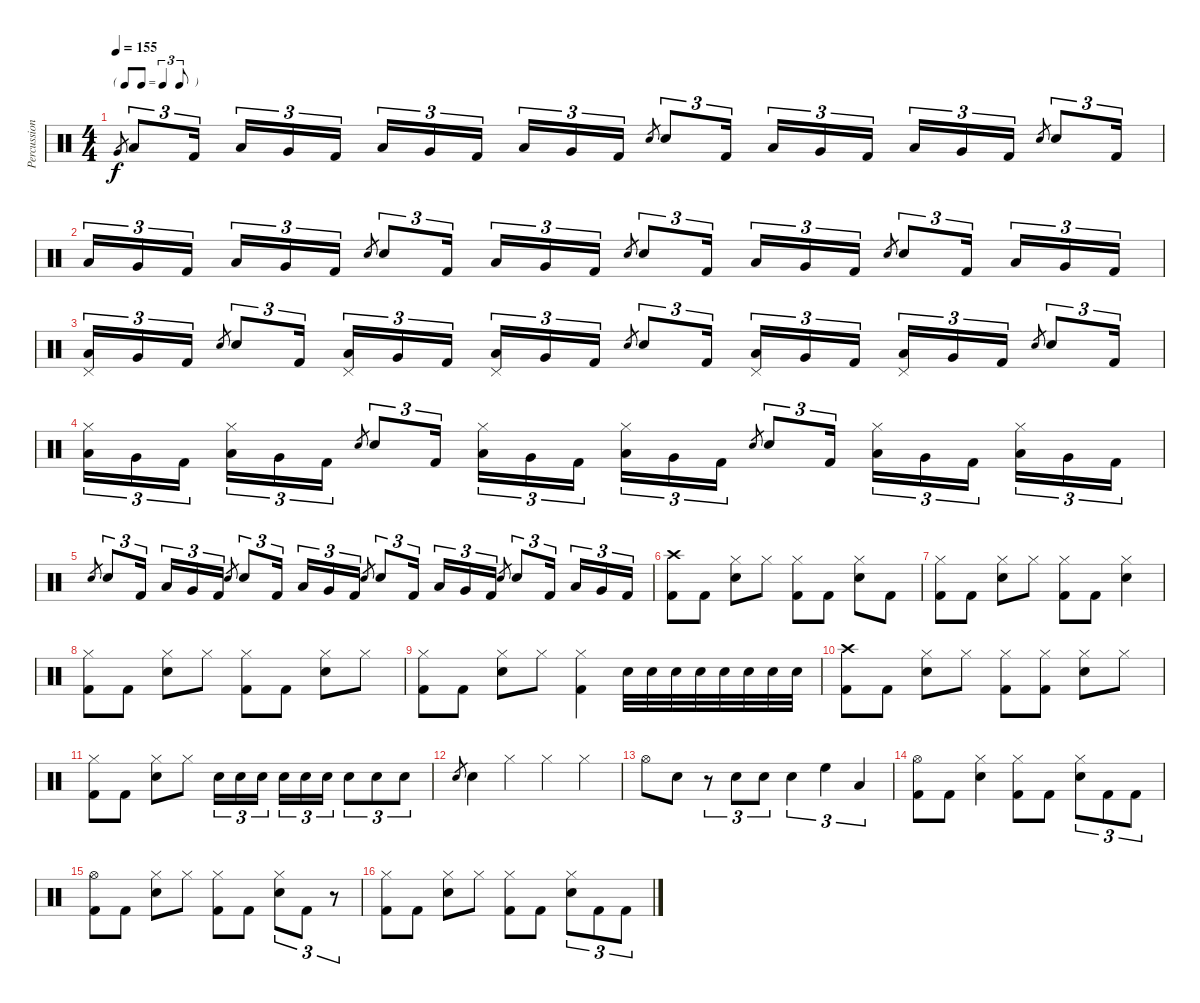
\track ("Percussion" "Percussion") {instrument percussion}
\staff {score}
\articulation defaults
\ts (4 4)
\tf triplet8th
\tempo 155
\clef neutral
\ks c "Very Low Tom (hit)".8{gr dy f} "Low Tom (hit)".8{tu (3 2)} "Kick (hit) 2".16{tu (3 2)} "Low Tom (hit)".16{tu (3 2)} "Very Low Tom (hit)".16{tu (3 2)} "Kick (hit) 2".16{tu (3 2)} "Low Tom (hit)".16{tu (3 2)} "Very Low Tom (hit)".16{tu (3 2)} "Kick (hit) 2".16{tu (3 2)} "Low Tom (hit)".16{tu (3 2)} "Very Low Tom (hit)".16{tu (3 2)} "Kick (hit) 2".16{tu (3 2)} "Snare (hit) 2".8{gr} "Snare (hit) 2".8{tu (3 2)} "Kick (hit) 2".16{tu (3 2)} "Low Tom (hit)".16{tu (3 2)} "Very Low Tom (hit)".16{tu (3 2)} "Kick (hit) 2".16{tu (3 2)} "Low Tom (hit)".16{tu (3 2)} "Very Low Tom (hit)".16{tu (3 2)} "Kick (hit) 2".16{tu (3 2)} "Snare (hit) 2".8{gr} "Snare (hit) 2".8{tu (3 2)} "Kick (hit) 2".16{tu (3 2)}
|
"Low Tom (hit)".16{tu (3 2)} "Very Low Tom (hit)".16{tu (3 2)} "Kick (hit) 2".16{tu (3 2)} "Low Tom (hit)".16{tu (3 2)} "Very Low Tom (hit)".16{tu (3 2)} "Kick (hit) 2".16{tu (3 2)} "Snare (hit) 2".8{gr} "Snare (hit) 2".8{tu (3 2)} "Kick (hit) 2".16{tu (3 2)} "Low Tom (hit)".16{tu (3 2)} "Very Low Tom (hit)".16{tu (3 2)} "Kick (hit) 2".16{tu (3 2)} "Snare (hit) 2".8{gr} "Snare (hit) 2".8{tu (3 2)} "Kick (hit) 2".16{tu (3 2)} "Low Tom (hit)".16{tu (3 2)} "Very Low Tom (hit)".16{tu (3 2)} "Kick (hit) 2".16{tu (3 2)} "Snare (hit) 2".8{gr} "Snare (hit) 2".8{tu (3 2)} "Kick (hit) 2".16{tu (3 2)} "Low Tom (hit)".16{tu (3 2)} "Very Low Tom (hit)".16{tu (3 2)} "Kick (hit) 2".16{tu (3 2)} |
("Low Tom (hit)" "Pedal Hi-Hat (hit)").16{tu (3 2)} "Very Low Tom (hit)".16{tu (3 2)} "Kick (hit) 2".16{tu (3 2)} "Snare (hit) 2".8{gr} "Snare (hit) 2".8{tu (3 2)} "Kick (hit) 2".16{tu (3 2)} ("Low Tom (hit)" "Pedal Hi-Hat (hit)").16{tu (3 2)} "Very Low Tom (hit)".16{tu (3 2)} "Kick (hit) 2".16{tu (3 2)} ("Low Tom (hit)" "Pedal Hi-Hat (hit)").16{tu (3 2)} "Very Low Tom (hit)".16{tu (3 2)} "Kick (hit) 2".16{tu (3 2)} "Snare (hit) 2".8{gr} "Snare (hit) 2".8{tu (3 2)} "Kick (hit) 2".16{tu (3 2)} ("Low Tom (hit)" "Pedal Hi-Hat (hit)").16{tu (3 2)} "Very Low Tom (hit)".16{tu (3 2)} "Kick (hit) 2".16{tu (3 2)} ("Low Tom (hit)" "Pedal Hi-Hat (hit)").16{tu (3 2)} "Very Low Tom (hit)".16{tu (3 2)} "Kick (hit) 2".16{tu (3 2)} "Snare (hit) 2".8{gr} "Snare (hit) 2".8{tu (3 2)} "Kick (hit) 2".16{tu (3 2)} |
("Low Tom (hit)" "Hi-Hat (closed)").16{tu (3 2)} "Very Low Tom (hit)".16{tu (3 2)} "Kick (hit) 2".16{tu (3 2)} ("Low Tom (hit)" "Hi-Hat (closed)").16{tu (3 2)} "Very Low Tom (hit)".16{tu (3 2)} "Kick (hit) 2".16{tu (3 2)} "Snare (hit) 2".8{gr} "Snare (hit) 2".8{tu (3 2)} "Kick (hit) 2".16{tu (3 2)} ("Low Tom (hit)" "Hi-Hat (closed)").16{tu (3 2)} "Very Low Tom (hit)".16{tu (3 2)} "Kick (hit) 2".16{tu (3 2)} ("Low Tom (hit)" "Hi-Hat (closed)").16{tu (3 2)} "Very Low Tom (hit)".16{tu (3 2)} "Kick (hit) 2".16{tu (3 2)} "Snare (hit) 2".8{gr} "Snare (hit) 2".8{tu (3 2)} "Kick (hit) 2".16{tu (3 2)} ("Low Tom (hit)" "Hi-Hat (closed)").16{tu (3 2)} "Very Low Tom (hit)".16{tu (3 2)} "Kick (hit) 2".16{tu (3 2)} ("Low Tom (hit)" "Hi-Hat (closed)").16{tu (3 2)} "Very Low Tom (hit)".16{tu (3 2)} "Kick (hit) 2".16{tu (3 2)} |
"Snare (hit) 2".8{gr} "Snare (hit) 2".8{tu (3 2)} "Kick (hit) 2".16{tu (3 2)} "Low Tom (hit)".16{tu (3 2)} "Very Low Tom (hit)".16{tu (3 2)} "Kick (hit) 2".16{tu (3 2)} "Snare (hit) 2".8{gr} "Snare (hit) 2".8{tu (3 2)} "Kick (hit) 2".16{tu (3 2)} "Low Tom (hit)".16{tu (3 2)} "Very Low Tom (hit)".16{tu (3 2)} "Kick (hit) 2".16{tu (3 2)} "Snare (hit) 2".8{gr} "Snare (hit) 2".8{tu (3 2)} "Kick (hit) 2".16{tu (3 2)} "Low Tom (hit)".16{tu (3 2)} "Very Low Tom (hit)".16{tu (3 2)} "Kick (hit) 2".16{tu (3 2)} "Snare (hit) 2".8{gr} "Snare (hit) 2".8{tu (3 2)} "Kick (hit) 2".16{tu (3 2)} "Low Tom (hit)".16{tu (3 2)} "Very Low Tom (hit)".16{tu (3 2)} "Kick (hit) 2".16{tu (3 2)} |
("Kick (hit) 2" "Crash high (hit)").8 "Kick (hit) 2".8 ("Snare (hit) 2" "Hi-Hat (closed)").8 "Hi-Hat (closed)".8 ("Kick (hit) 2" "Hi-Hat (closed)").8 "Kick (hit) 2".8 ("Snare (hit) 2" "Hi-Hat (closed)").8 "Kick (hit) 2".8 |
("Kick (hit) 2" "Hi-Hat (closed)").8 "Kick (hit) 2".8 ("Snare (hit) 2" "Hi-Hat (closed)").8 "Hi-Hat (closed)".8 ("Kick (hit) 2" "Hi-Hat (closed)").8 "Kick (hit) 2".8 ("Snare (hit) 2" "Hi-Hat (closed)").4 |
("Kick (hit) 2" "Hi-Hat (closed)").8 "Kick (hit) 2".8 ("Snare (hit) 2" "Hi-Hat (closed)").8 "Hi-Hat (closed)".8 ("Kick (hit) 2" "Hi-Hat (closed)").8 "Kick (hit) 2".8 ("Snare (hit) 2" "Hi-Hat (closed)").8 "Hi-Hat (closed)".8 |
("Kick (hit) 2" "Hi-Hat (closed)").8 "Kick (hit) 2".8 ("Snare (hit) 2" "Hi-Hat (closed)").8 "Hi-Hat (closed)".8 ("Kick (hit) 2" "Hi-Hat (closed)").4 "Snare (hit) 2".32 "Snare (hit) 2".32 "Snare (hit) 2".32 "Snare (hit) 2".32 "Snare (hit) 2".32 "Snare (hit) 2".32 "Snare (hit) 2".32 "Snare (hit) 2".32 |
("Kick (hit) 2" "Crash high (hit)").8 "Kick (hit) 2".8 ("Snare (hit) 2" "Hi-Hat (closed)").8 "Hi-Hat (closed)".8 ("Kick (hit) 2" "Hi-Hat (closed)").8 ("Kick (hit) 2" "Hi-Hat (closed)").8 ("Snare (hit) 2" "Hi-Hat (closed)").8 "Hi-Hat (closed)".8 |
("Kick (hit) 2" "Hi-Hat (closed)").8 "Kick (hit) 2".8 ("Snare (hit) 2" "Hi-Hat (closed)").8 "Hi-Hat (closed)".8 "Snare (hit) 2".16{tu (3 2)} "Snare (hit) 2".16{tu (3 2)} "Snare (hit) 2".16{tu (3 2)} "Snare (hit) 2".16{tu (3 2)} "Snare (hit) 2".16{tu (3 2)} "Snare (hit) 2".16{tu (3 2)} "Snare (hit) 2".8{tu (3 2)} "Snare (hit) 2".8{tu (3 2)} "Snare (hit) 2".8{tu (3 2)} |
"Snare (hit) 2".8{gr} "Snare (hit) 2".4 "Hi-Hat (closed)".4 "Hi-Hat (closed)".4 "Hi-Hat (closed)".4 |
"Hi-Hat (open)".8 "Snare (hit) 2".8 r.8{tu (3 2)} "Snare (hit) 2".8{tu (3 2)} "Snare (hit) 2".8{tu (3 2)} "Snare (hit) 2".4{tu (3 2)} "High Floor Tom (hit)".4{tu (3 2)} "Low Tom (hit)".4{tu (3 2)} |
("Kick (hit) 2" "Hi-Hat (open)").8 "Kick (hit) 2".8 ("Snare (hit) 2" "Hi-Hat (closed)").4 ("Kick (hit) 2" "Hi-Hat (closed)").8 "Kick (hit) 2".8 ("Snare (hit) 2" "Hi-Hat (closed)").8{tu (3 2)} "Kick (hit) 2".8{tu (3 2)} "Kick (hit) 2".8{tu (3 2)} |
("Kick (hit) 2" "Hi-Hat (open)").8 "Kick (hit) 2".8 ("Snare (hit) 2" "Hi-Hat (closed)").8 "Hi-Hat (closed)".8 ("Kick (hit) 2" "Hi-Hat (closed)").8 "Kick (hit) 2".8 ("Snare (hit) 2" "Hi-Hat (closed)").8{tu (3 2)} "Kick (hit) 2".8{tu (3 2)} r.8{tu (3 2)} |
("Kick (hit) 2" "Hi-Hat (closed)").8 "Kick (hit) 2".8 ("Snare (hit) 2" "Hi-Hat (closed)").8 "Hi-Hat (closed)".8 ("Kick (hit) 2" "Hi-Hat (closed)").8 "Kick (hit) 2".8 ("Snare (hit) 2" "Hi-Hat (closed)").8{tu (3 2)} "Kick (hit) 2".8{tu (3 2)} "Kick (hit) 2".8{tu (3 2)}
